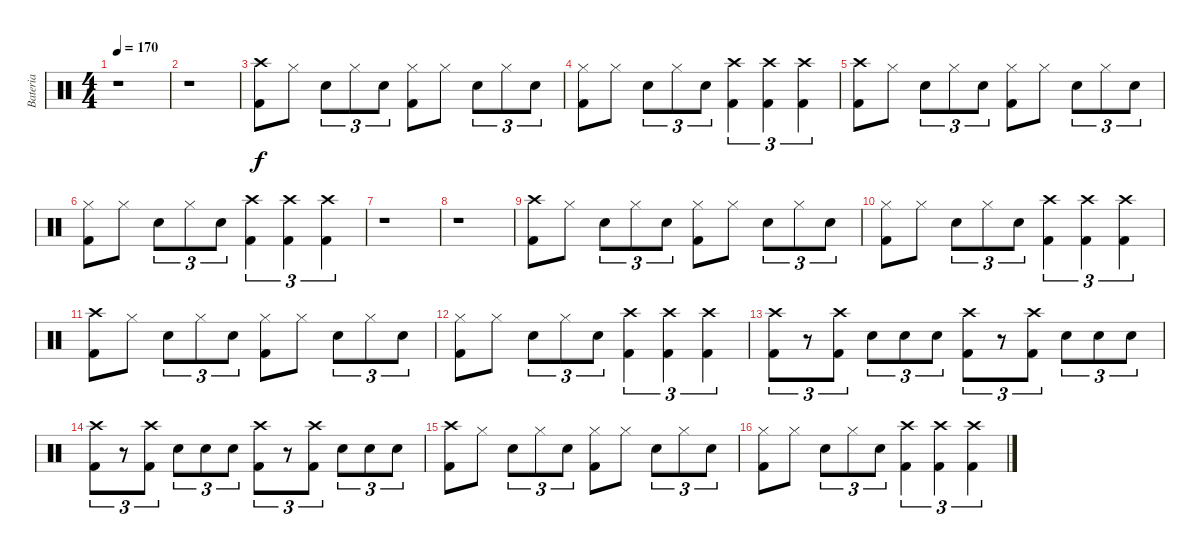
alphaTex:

\track ("Bateria" "Bateria") {instrument percussion}
\staff {score}
\articulation defaults
\ts (4 4)
\tempo 170
\clef neutral
\ks c
r.1{dy f} |
r.1 |
("Crash high (hit)" "Kick (hit) 2").8 "Hi-Hat (closed)".8 "Snare (hit) 2".8{tu (3 2)} "Hi-Hat (closed)".8{tu (3 2)} "Snare (hit) 2".8{tu (3 2)} ("Hi-Hat (closed)" "Kick (hit) 2").8 "Hi-Hat (closed)".8 "Snare (hit) 2".8{tu (3 2)} "Hi-Hat (closed)".8{tu (3 2)} "Snare (hit) 2".8{tu (3 2)} |
("Hi-Hat (closed)" "Kick (hit) 2").8 "Hi-Hat (closed)".8 "Snare (hit) 2".8{tu (3 2)} "Hi-Hat (closed)".8{tu (3 2)} "Snare (hit) 2".8{tu (3 2)} ("Crash high (hit)" "Kick (hit) 2").4{tu (3 2)} ("Crash high (hit)" "Kick (hit) 2").4{tu (3 2)} ("Crash high (hit)" "Kick (hit) 2").4{tu (3 2)} |
("Crash high (hit)" "Kick (hit) 2").8 "Hi-Hat (closed)".8 "Snare (hit) 2".8{tu (3 2)} "Hi-Hat (closed)".8{tu (3 2)} "Snare (hit) 2".8{tu (3 2)} ("Hi-Hat (closed)" "Kick (hit) 2").8 "Hi-Hat (closed)".8 "Snare (hit) 2".8{tu (3 2)} "Hi-Hat (closed)".8{tu (3 2)} "Snare (hit) 2".8{tu (3 2)} |
("Hi-Hat (closed)" "Kick (hit) 2").8 "Hi-Hat (closed)".8 "Snare (hit) 2".8{tu (3 2)} "Hi-Hat (closed)".8{tu (3 2)} "Snare (hit) 2".8{tu (3 2)} ("Crash high (hit)" "Kick (hit) 2").4{tu (3 2)} ("Crash high (hit)" "Kick (hit) 2").4{tu (3 2)} ("Crash high (hit)" "Kick (hit) 2").4{tu (3 2)} |
r.1 |
r.1 |
("Crash high (hit)" "Kick (hit) 2").8 "Hi-Hat (closed)".8 "Snare (hit) 2".8{tu (3 2)} "Hi-Hat (closed)".8{tu (3 2)} "Snare (hit) 2".8{tu (3 2)} ("Hi-Hat (closed)" "Kick (hit) 2").8 "Hi-Hat (closed)".8 "Snare (hit) 2".8{tu (3 2)} "Hi-Hat (closed)".8{tu (3 2)} "Snare (hit) 2".8{tu (3 2)} |
("Hi-Hat (closed)" "Kick (hit) 2").8 "Hi-Hat (closed)".8 "Snare (hit) 2".8{tu (3 2)} "Hi-Hat (closed)".8{tu (3 2)} "Snare (hit) 2".8{tu (3 2)} ("Crash high (hit)" "Kick (hit) 2").4{tu (3 2)} ("Crash high (hit)" "Kick (hit) 2").4{tu (3 2)} ("Crash high (hit)" "Kick (hit) 2").4{tu (3 2)} |
("Crash high (hit)" "Kick (hit) 2").8 "Hi-Hat (closed)".8 "Snare (hit) 2".8{tu (3 2)} "Hi-Hat (closed)".8{tu (3 2)} "Snare (hit) 2".8{tu (3 2)} ("Hi-Hat (closed)" "Kick (hit) 2").8 "Hi-Hat (closed)".8 "Snare (hit) 2".8{tu (3 2)} "Hi-Hat (closed)".8{tu (3 2)} "Snare (hit) 2".8{tu (3 2)} |
("Hi-Hat (closed)" "Kick (hit) 2").8 "Hi-Hat (closed)".8 "Snare (hit) 2".8{tu (3 2)} "Hi-Hat (closed)".8{tu (3 2)} "Snare (hit) 2".8{tu (3 2)} ("Crash high (hit)" "Kick (hit) 2").4{tu (3 2)} ("Crash high (hit)" "Kick (hit) 2").4{tu (3 2)} ("Crash high (hit)" "Kick (hit) 2").4{tu (3 2)} |
("Crash high (hit)" "Kick (hit) 2").8{tu (3 2)} r.8{tu (3 2)} ("Crash high (hit)" "Kick (hit) 2").8{tu (3 2)} "Snare (hit) 2".8{tu (3 2)} "Snare (hit) 2".8{tu (3 2)} "Snare (hit) 2".8{tu (3 2)} ("Crash high (hit)" "Kick (hit) 2").8{tu (3 2)} r.8{tu (3 2)} ("Crash high (hit)" "Kick (hit) 2").8{tu (3 2)} "Snare (hit) 2".8{tu (3 2)} "Snare (hit) 2".8{tu (3 2)} "Snare (hit) 2".8{tu (3 2)} |
("Crash high (hit)" "Kick (hit) 2").8{tu (3 2)} r.8{tu (3 2)} ("Crash high (hit)" "Kick (hit) 2").8{tu (3 2)} "Snare (hit) 2".8{tu (3 2)} "Snare (hit) 2".8{tu (3 2)} "Snare (hit) 2".8{tu (3 2)} ("Crash high (hit)" "Kick (hit) 2").8{tu (3 2)} r.8{tu (3 2)} ("Crash high (hit)" "Kick (hit) 2").8{tu (3 2)} "Snare (hit) 2".8{tu (3 2)} "Snare (hit) 2".8{tu (3 2)} "Snare (hit) 2".8{tu (3 2)} |
("Crash high (hit)" "Kick (hit) 2").8 "Hi-Hat (closed)".8 "Snare (hit) 2".8{tu (3 2)} "Hi-Hat (closed)".8{tu (3 2)} "Snare (hit) 2".8{tu (3 2)} ("Hi-Hat (closed)" "Kick (hit) 2").8 "Hi-Hat (closed)".8 "Snare (hit) 2".8{tu (3 2)} "Hi-Hat (closed)".8{tu (3 2)} "Snare (hit) 2".8{tu (3 2)} |
("Hi-Hat (closed)" "Kick (hit) 2").8 "Hi-Hat (closed)".8 "Snare (hit) 2".8{tu (3 2)} "Hi-Hat (closed)".8{tu (3 2)} "Snare (hit) 2".8{tu (3 2)} ("Crash high (hit)" "Kick (hit) 2").4{tu (3 2)} ("Crash high (hit)" "Kick (hit) 2").4{tu (3 2)} ("Crash high (hit)" "Kick (hit) 2").4{tu (3 2)}
